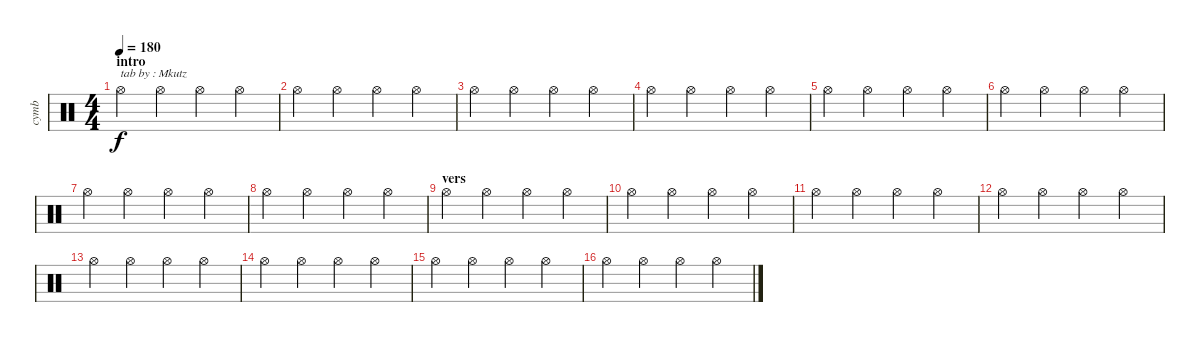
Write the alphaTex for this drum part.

\track ("cymb" "cymb") {instrument percussion}
\staff {score}
\articulation defaults
\ts (4 4)
\section ("" "intro")
\tempo 180
\clef neutral
\ks c "Hi-Hat (open)".4{txt "tab by : Mkutz" dy f} "Hi-Hat (open)".4 "Hi-Hat (open)".4 "Hi-Hat (open)".4
|
"Hi-Hat (open)".4 "Hi-Hat (open)".4 "Hi-Hat (open)".4 "Hi-Hat (open)".4 |
"Hi-Hat (open)".4 "Hi-Hat (open)".4 "Hi-Hat (open)".4 "Hi-Hat (open)".4 |
"Hi-Hat (open)".4 "Hi-Hat (open)".4 "Hi-Hat (open)".4 "Hi-Hat (open)".4 |
"Hi-Hat (open)".4 "Hi-Hat (open)".4 "Hi-Hat (open)".4 "Hi-Hat (open)".4 |
"Hi-Hat (open)".4 "Hi-Hat (open)".4 "Hi-Hat (open)".4 "Hi-Hat (open)".4 |
"Hi-Hat (open)".4 "Hi-Hat (open)".4 "Hi-Hat (open)".4 "Hi-Hat (open)".4 |
"Hi-Hat (open)".4 "Hi-Hat (open)".4 "Hi-Hat (open)".4 "Hi-Hat (open)".4 |
\section ("" "vers")
"Hi-Hat (open)".4 "Hi-Hat (open)".4 "Hi-Hat (open)".4 "Hi-Hat (open)".4 |
"Hi-Hat (open)".4 "Hi-Hat (open)".4 "Hi-Hat (open)".4 "Hi-Hat (open)".4 |
"Hi-Hat (open)".4 "Hi-Hat (open)".4 "Hi-Hat (open)".4 "Hi-Hat (open)".4 |
"Hi-Hat (open)".4 "Hi-Hat (open)".4 "Hi-Hat (open)".4 "Hi-Hat (open)".4 |
"Hi-Hat (open)".4 "Hi-Hat (open)".4 "Hi-Hat (open)".4 "Hi-Hat (open)".4 |
"Hi-Hat (open)".4 "Hi-Hat (open)".4 "Hi-Hat (open)".4 "Hi-Hat (open)".4 |
"Hi-Hat (open)".4 "Hi-Hat (open)".4 "Hi-Hat (open)".4 "Hi-Hat (open)".4 |
"Hi-Hat (open)".4 "Hi-Hat (open)".4 "Hi-Hat (open)".4 "Hi-Hat (open)".4
